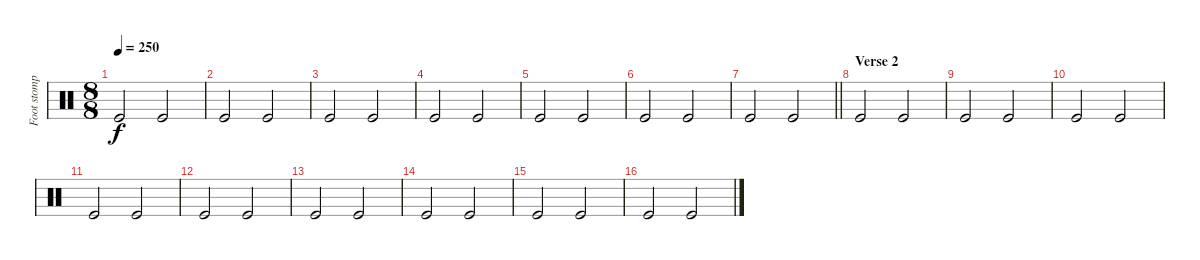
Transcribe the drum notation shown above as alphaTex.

\track ("Foot stomp!" "Foot stomp") {instrument percussion}
\staff {score}
\articulation defaults
\ts (8 8)
\tempo 250
\clef neutral
\ks c "Kick (hit)".2{dy f} "Kick (hit)".2
|
"Kick (hit)".2 "Kick (hit)".2 |
"Kick (hit)".2 "Kick (hit)".2 |
"Kick (hit)".2 "Kick (hit)".2 |
"Kick (hit)".2 "Kick (hit)".2 |
"Kick (hit)".2 "Kick (hit)".2 |
\barLineRight lightlight "Kick (hit)".2 "Kick (hit)".2
|
\section ("" "Verse 2")
"Kick (hit)".2 "Kick (hit)".2 |
"Kick (hit)".2 "Kick (hit)".2 |
"Kick (hit)".2 "Kick (hit)".2 |
"Kick (hit)".2 "Kick (hit)".2 |
"Kick (hit)".2 "Kick (hit)".2 |
"Kick (hit)".2 "Kick (hit)".2 |
"Kick (hit)".2 "Kick (hit)".2 |
"Kick (hit)".2 "Kick (hit)".2 |
"Kick (hit)".2 "Kick (hit)".2
